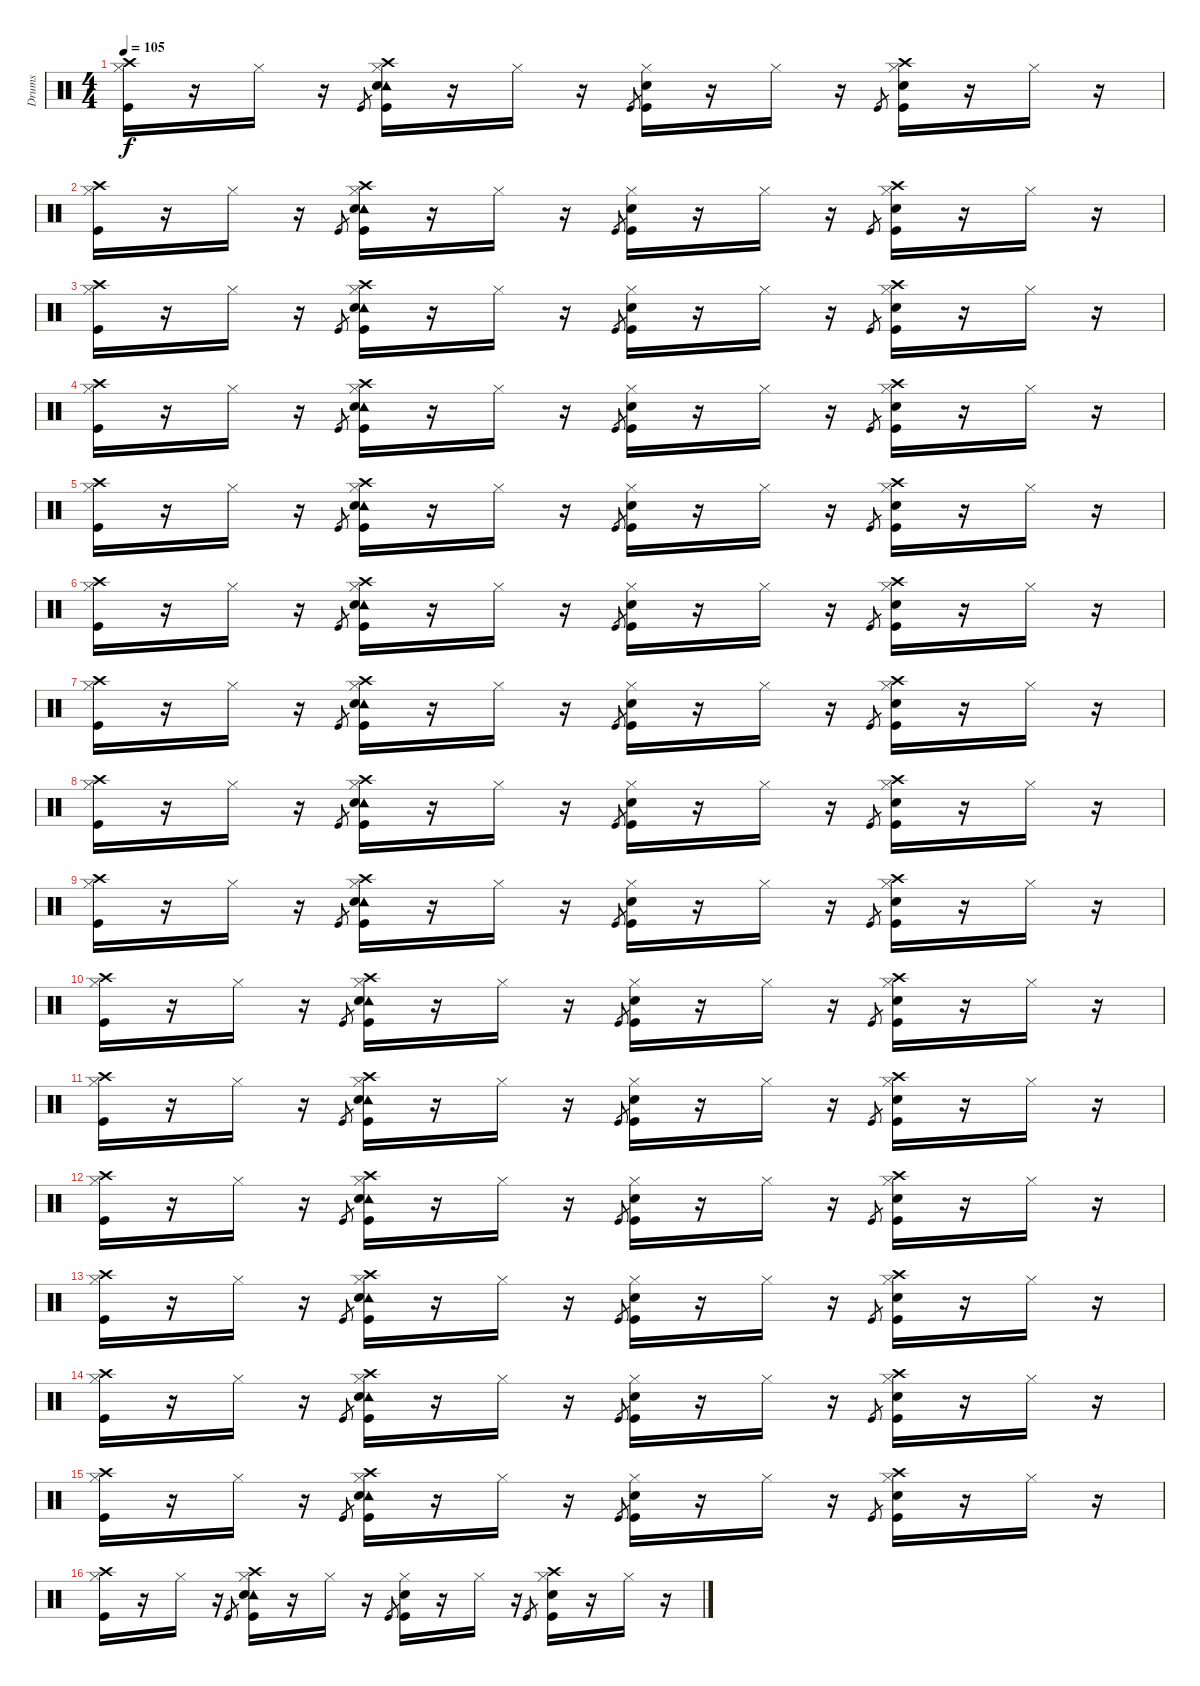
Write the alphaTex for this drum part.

\track ("Drums" "Drums") {instrument percussion}
\staff {score}
\articulation defaults
\ts (4 4)
\tempo 105
\clef neutral
\ks c
("Crash high (hit)" "Hi-Hat (closed)" "Kick (hit)").16{dy f} r.16 "Hi-Hat (closed)".16 r.16 "Kick (hit)".8{gr} ("Crash high (hit)" "Hi-Hat (closed)" "Tambourine (hit)" "Snare (hit) 2" "Kick (hit)").16 r.16 "Hi-Hat (closed)".16 r.16 "Kick (hit)".8{gr} ("Hi-Hat (closed)" "Snare (hit) 2" "Kick (hit)").16 r.16 "Hi-Hat (closed)".16 r.16 "Kick (hit)".8{gr} ("Crash high (hit)" "Hi-Hat (closed)" "Snare (hit) 2" "Kick (hit)").16 r.16 "Hi-Hat (closed)".16 r.16 |
("Crash high (hit)" "Hi-Hat (closed)" "Kick (hit)").16 r.16 "Hi-Hat (closed)".16 r.16 "Kick (hit)".8{gr} ("Crash high (hit)" "Hi-Hat (closed)" "Tambourine (hit)" "Snare (hit) 2" "Kick (hit)").16 r.16 "Hi-Hat (closed)".16 r.16 "Kick (hit)".8{gr} ("Hi-Hat (closed)" "Snare (hit) 2" "Kick (hit)").16 r.16 "Hi-Hat (closed)".16 r.16 "Kick (hit)".8{gr} ("Crash high (hit)" "Hi-Hat (closed)" "Snare (hit) 2" "Kick (hit)").16 r.16 "Hi-Hat (closed)".16 r.16 |
("Crash high (hit)" "Hi-Hat (closed)" "Kick (hit)").16 r.16 "Hi-Hat (closed)".16 r.16 "Kick (hit)".8{gr} ("Crash high (hit)" "Hi-Hat (closed)" "Tambourine (hit)" "Snare (hit) 2" "Kick (hit)").16 r.16 "Hi-Hat (closed)".16 r.16 "Kick (hit)".8{gr} ("Hi-Hat (closed)" "Snare (hit) 2" "Kick (hit)").16 r.16 "Hi-Hat (closed)".16 r.16 "Kick (hit)".8{gr} ("Crash high (hit)" "Hi-Hat (closed)" "Snare (hit) 2" "Kick (hit)").16 r.16 "Hi-Hat (closed)".16 r.16 |
("Crash high (hit)" "Hi-Hat (closed)" "Kick (hit)").16 r.16 "Hi-Hat (closed)".16 r.16 "Kick (hit)".8{gr} ("Crash high (hit)" "Hi-Hat (closed)" "Tambourine (hit)" "Snare (hit) 2" "Kick (hit)").16 r.16 "Hi-Hat (closed)".16 r.16 "Kick (hit)".8{gr} ("Hi-Hat (closed)" "Snare (hit) 2" "Kick (hit)").16 r.16 "Hi-Hat (closed)".16 r.16 "Kick (hit)".8{gr} ("Crash high (hit)" "Hi-Hat (closed)" "Snare (hit) 2" "Kick (hit)").16 r.16 "Hi-Hat (closed)".16 r.16 |
("Crash high (hit)" "Hi-Hat (closed)" "Kick (hit)").16 r.16 "Hi-Hat (closed)".16 r.16 "Kick (hit)".8{gr} ("Crash high (hit)" "Hi-Hat (closed)" "Tambourine (hit)" "Snare (hit) 2" "Kick (hit)").16 r.16 "Hi-Hat (closed)".16 r.16 "Kick (hit)".8{gr} ("Hi-Hat (closed)" "Snare (hit) 2" "Kick (hit)").16 r.16 "Hi-Hat (closed)".16 r.16 "Kick (hit)".8{gr} ("Crash high (hit)" "Hi-Hat (closed)" "Snare (hit) 2" "Kick (hit)").16 r.16 "Hi-Hat (closed)".16 r.16 |
("Crash high (hit)" "Hi-Hat (closed)" "Kick (hit)").16 r.16 "Hi-Hat (closed)".16 r.16 "Kick (hit)".8{gr} ("Crash high (hit)" "Hi-Hat (closed)" "Tambourine (hit)" "Snare (hit) 2" "Kick (hit)").16 r.16 "Hi-Hat (closed)".16 r.16 "Kick (hit)".8{gr} ("Hi-Hat (closed)" "Snare (hit) 2" "Kick (hit)").16 r.16 "Hi-Hat (closed)".16 r.16 "Kick (hit)".8{gr} ("Crash high (hit)" "Hi-Hat (closed)" "Snare (hit) 2" "Kick (hit)").16 r.16 "Hi-Hat (closed)".16 r.16 |
("Crash high (hit)" "Hi-Hat (closed)" "Kick (hit)").16 r.16 "Hi-Hat (closed)".16 r.16 "Kick (hit)".8{gr} ("Crash high (hit)" "Hi-Hat (closed)" "Tambourine (hit)" "Snare (hit) 2" "Kick (hit)").16 r.16 "Hi-Hat (closed)".16 r.16 "Kick (hit)".8{gr} ("Hi-Hat (closed)" "Snare (hit) 2" "Kick (hit)").16 r.16 "Hi-Hat (closed)".16 r.16 "Kick (hit)".8{gr} ("Crash high (hit)" "Hi-Hat (closed)" "Snare (hit) 2" "Kick (hit)").16 r.16 "Hi-Hat (closed)".16 r.16 |
("Crash high (hit)" "Hi-Hat (closed)" "Kick (hit)").16 r.16 "Hi-Hat (closed)".16 r.16 "Kick (hit)".8{gr} ("Crash high (hit)" "Hi-Hat (closed)" "Tambourine (hit)" "Snare (hit) 2" "Kick (hit)").16 r.16 "Hi-Hat (closed)".16 r.16 "Kick (hit)".8{gr} ("Hi-Hat (closed)" "Snare (hit) 2" "Kick (hit)").16 r.16 "Hi-Hat (closed)".16 r.16 "Kick (hit)".8{gr} ("Crash high (hit)" "Hi-Hat (closed)" "Snare (hit) 2" "Kick (hit)").16 r.16 "Hi-Hat (closed)".16 r.16 |
("Crash high (hit)" "Hi-Hat (closed)" "Kick (hit)").16 r.16 "Hi-Hat (closed)".16 r.16 "Kick (hit)".8{gr} ("Crash high (hit)" "Hi-Hat (closed)" "Tambourine (hit)" "Snare (hit) 2" "Kick (hit)").16 r.16 "Hi-Hat (closed)".16 r.16 "Kick (hit)".8{gr} ("Hi-Hat (closed)" "Snare (hit) 2" "Kick (hit)").16 r.16 "Hi-Hat (closed)".16 r.16 "Kick (hit)".8{gr} ("Crash high (hit)" "Hi-Hat (closed)" "Snare (hit) 2" "Kick (hit)").16 r.16 "Hi-Hat (closed)".16 r.16 |
("Crash high (hit)" "Hi-Hat (closed)" "Kick (hit)").16 r.16 "Hi-Hat (closed)".16 r.16 "Kick (hit)".8{gr} ("Crash high (hit)" "Hi-Hat (closed)" "Tambourine (hit)" "Snare (hit) 2" "Kick (hit)").16 r.16 "Hi-Hat (closed)".16 r.16 "Kick (hit)".8{gr} ("Hi-Hat (closed)" "Snare (hit) 2" "Kick (hit)").16 r.16 "Hi-Hat (closed)".16 r.16 "Kick (hit)".8{gr} ("Crash high (hit)" "Hi-Hat (closed)" "Snare (hit) 2" "Kick (hit)").16 r.16 "Hi-Hat (closed)".16 r.16 |
("Crash high (hit)" "Hi-Hat (closed)" "Kick (hit)").16 r.16 "Hi-Hat (closed)".16 r.16 "Kick (hit)".8{gr} ("Crash high (hit)" "Hi-Hat (closed)" "Tambourine (hit)" "Snare (hit) 2" "Kick (hit)").16 r.16 "Hi-Hat (closed)".16 r.16 "Kick (hit)".8{gr} ("Hi-Hat (closed)" "Snare (hit) 2" "Kick (hit)").16 r.16 "Hi-Hat (closed)".16 r.16 "Kick (hit)".8{gr} ("Crash high (hit)" "Hi-Hat (closed)" "Snare (hit) 2" "Kick (hit)").16 r.16 "Hi-Hat (closed)".16 r.16 |
("Crash high (hit)" "Hi-Hat (closed)" "Kick (hit)").16 r.16 "Hi-Hat (closed)".16 r.16 "Kick (hit)".8{gr} ("Crash high (hit)" "Hi-Hat (closed)" "Tambourine (hit)" "Snare (hit) 2" "Kick (hit)").16 r.16 "Hi-Hat (closed)".16 r.16 "Kick (hit)".8{gr} ("Hi-Hat (closed)" "Snare (hit) 2" "Kick (hit)").16 r.16 "Hi-Hat (closed)".16 r.16 "Kick (hit)".8{gr} ("Crash high (hit)" "Hi-Hat (closed)" "Snare (hit) 2" "Kick (hit)").16 r.16 "Hi-Hat (closed)".16 r.16 |
("Crash high (hit)" "Hi-Hat (closed)" "Kick (hit)").16 r.16 "Hi-Hat (closed)".16 r.16 "Kick (hit)".8{gr} ("Crash high (hit)" "Hi-Hat (closed)" "Tambourine (hit)" "Snare (hit) 2" "Kick (hit)").16 r.16 "Hi-Hat (closed)".16 r.16 "Kick (hit)".8{gr} ("Hi-Hat (closed)" "Snare (hit) 2" "Kick (hit)").16 r.16 "Hi-Hat (closed)".16 r.16 "Kick (hit)".8{gr} ("Crash high (hit)" "Hi-Hat (closed)" "Snare (hit) 2" "Kick (hit)").16 r.16 "Hi-Hat (closed)".16 r.16 |
("Crash high (hit)" "Hi-Hat (closed)" "Kick (hit)").16 r.16 "Hi-Hat (closed)".16 r.16 "Kick (hit)".8{gr} ("Crash high (hit)" "Hi-Hat (closed)" "Tambourine (hit)" "Snare (hit) 2" "Kick (hit)").16 r.16 "Hi-Hat (closed)".16 r.16 "Kick (hit)".8{gr} ("Hi-Hat (closed)" "Snare (hit) 2" "Kick (hit)").16 r.16 "Hi-Hat (closed)".16 r.16 "Kick (hit)".8{gr} ("Crash high (hit)" "Hi-Hat (closed)" "Snare (hit) 2" "Kick (hit)").16 r.16 "Hi-Hat (closed)".16 r.16 |
("Crash high (hit)" "Hi-Hat (closed)" "Kick (hit)").16 r.16 "Hi-Hat (closed)".16 r.16 "Kick (hit)".8{gr} ("Crash high (hit)" "Hi-Hat (closed)" "Tambourine (hit)" "Snare (hit) 2" "Kick (hit)").16 r.16 "Hi-Hat (closed)".16 r.16 "Kick (hit)".8{gr} ("Hi-Hat (closed)" "Snare (hit) 2" "Kick (hit)").16 r.16 "Hi-Hat (closed)".16 r.16 "Kick (hit)".8{gr} ("Crash high (hit)" "Hi-Hat (closed)" "Snare (hit) 2" "Kick (hit)").16 r.16 "Hi-Hat (closed)".16 r.16 |
("Crash high (hit)" "Hi-Hat (closed)" "Kick (hit)").16 r.16 "Hi-Hat (closed)".16 r.16 "Kick (hit)".8{gr} ("Crash high (hit)" "Hi-Hat (closed)" "Tambourine (hit)" "Snare (hit) 2" "Kick (hit)").16 r.16 "Hi-Hat (closed)".16 r.16 "Kick (hit)".8{gr} ("Hi-Hat (closed)" "Snare (hit) 2" "Kick (hit)").16 r.16 "Hi-Hat (closed)".16 r.16 "Kick (hit)".8{gr} ("Crash high (hit)" "Hi-Hat (closed)" "Snare (hit) 2" "Kick (hit)").16 r.16 "Hi-Hat (closed)".16 r.16
